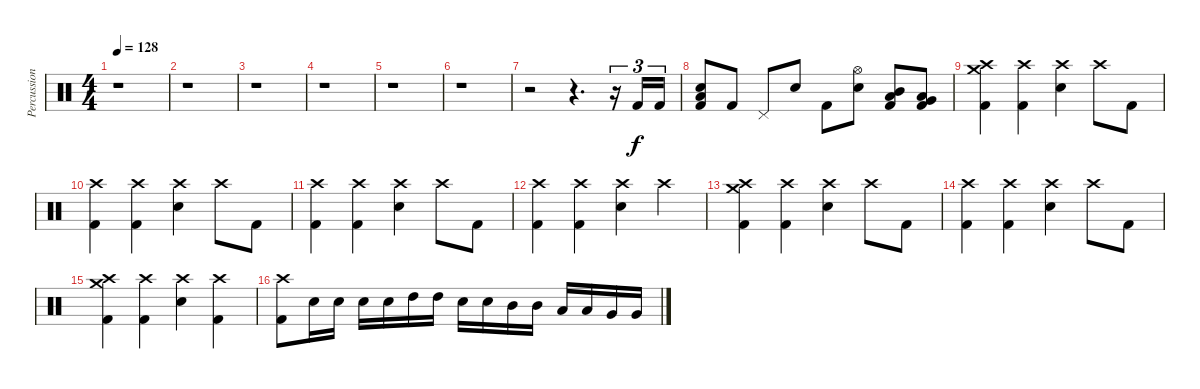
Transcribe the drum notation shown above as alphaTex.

\track ("Percussion" "Percussion") {instrument percussion}
\staff {score}
\articulation defaults
\ts (4 4)
\tempo 128
\clef neutral
\ks c
r.1{dy f} |
r.1 |
r.1 |
r.1 |
r.1 |
r.1 |
r.2 r.4{d} r.16{tu (3 2)} "Kick (hit) 2".16{tu (3 2)} "Kick (hit) 2".16{tu (3 2)} |
("Electric Snare (hit)" "Low Tom (hit)" "Kick (hit) 2").8 "Kick (hit) 2".8 "Pedal Hi-Hat (hit)".8 "Electric Snare (hit)".8 "Kick (hit) 2".8 ("Hi-Hat (open)" "Electric Snare (hit)").8 ("Mid Tom (hit)" "Low Tom (hit)" "Kick (hit) 2").8 ("Very Low Tom (hit)" "Low Floor Tom (hit)" "Kick (hit) 2").8 |
("Crash high (hit)" "Crash medium (hit)" "Kick (hit) 2").4 ("Crash high (hit)" "Kick (hit) 2").4 ("Crash high (hit)" "Electric Snare (hit)").4 "Crash high (hit)".8 "Kick (hit) 2".8 |
("Crash high (hit)" "Kick (hit) 2").4 ("Crash high (hit)" "Kick (hit) 2").4 ("Crash high (hit)" "Electric Snare (hit)").4 "Crash high (hit)".8 "Kick (hit) 2".8 |
("Crash high (hit)" "Kick (hit) 2").4 ("Crash high (hit)" "Kick (hit) 2").4 ("Crash high (hit)" "Electric Snare (hit)").4 "Crash high (hit)".8 "Kick (hit) 2".8 |
("Crash high (hit)" "Kick (hit) 2").4 ("Crash high (hit)" "Kick (hit) 2").4 ("Crash high (hit)" "Electric Snare (hit)").4 "Crash high (hit)".4 |
("Crash high (hit)" "Crash medium (hit)" "Kick (hit) 2").4 ("Crash high (hit)" "Kick (hit) 2").4 ("Crash high (hit)" "Electric Snare (hit)").4 "Crash high (hit)".8 "Kick (hit) 2".8 |
("Crash high (hit)" "Kick (hit) 2").4 ("Crash high (hit)" "Kick (hit) 2").4 ("Crash high (hit)" "Electric Snare (hit)").4 "Crash high (hit)".8 "Kick (hit) 2".8 |
("Crash high (hit)" "Crash medium (hit)" "Kick (hit) 2").4 ("Crash high (hit)" "Kick (hit) 2").4 ("Crash high (hit)" "Electric Snare (hit)").4 ("Crash high (hit)" "Kick (hit) 2").4 |
("Crash high (hit)" "Kick (hit) 2").8 "Electric Snare (hit)".16 "Electric Snare (hit)".16 "Electric Snare (hit)".16 "Electric Snare (hit)".16 "High Tom (hit)".16 "High Tom (hit)".16 "Electric Snare (hit)".16 "Electric Snare (hit)".16 "Mid Tom (hit)".16 "Mid Tom (hit)".16 "Low Tom (hit)".16 "Low Tom (hit)".16 "Very Low Tom (hit)".16 "Very Low Tom (hit)".16
